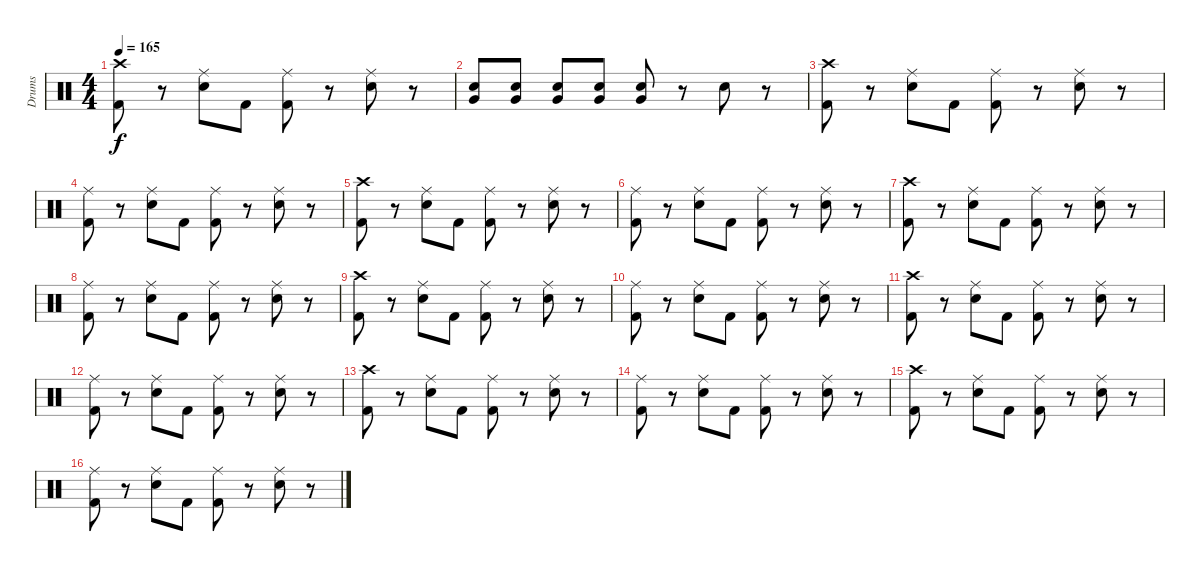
\track ("Drums" "Drums") {instrument percussion}
\staff {score}
\articulation defaults
\ts (4 4)
\tempo 165
\clef neutral
\ks c
("Crash high (hit)" "Kick (hit) 2").8{dy f} r.8 ("Ride (middle)" "Electric Snare (hit)").8 "Kick (hit) 2".8 ("Ride (middle)" "Kick (hit) 2").8 r.8 ("Ride (middle)" "Electric Snare (hit)").8 r.8 |
("Very Low Tom (hit)" "Electric Snare (hit)").8 ("Very Low Tom (hit)" "Electric Snare (hit)").8 ("Very Low Tom (hit)" "Electric Snare (hit)").8 ("Very Low Tom (hit)" "Electric Snare (hit)").8 ("Very Low Tom (hit)" "Electric Snare (hit)").8 r.8 "Electric Snare (hit)".8 r.8 |
("Crash high (hit)" "Kick (hit) 2").8 r.8 ("Ride (middle)" "Electric Snare (hit)").8 "Kick (hit) 2".8 ("Ride (middle)" "Kick (hit) 2").8 r.8 ("Ride (middle)" "Electric Snare (hit)").8 r.8 |
("Ride (middle)" "Kick (hit) 2").8 r.8 ("Ride (middle)" "Electric Snare (hit)").8 "Kick (hit) 2".8 ("Ride (middle)" "Kick (hit) 2").8 r.8 ("Ride (middle)" "Electric Snare (hit)").8 r.8 |
("Crash high (hit)" "Kick (hit) 2").8 r.8 ("Ride (middle)" "Electric Snare (hit)").8 "Kick (hit) 2".8 ("Ride (middle)" "Kick (hit) 2").8 r.8 ("Ride (middle)" "Electric Snare (hit)").8 r.8 |
("Ride (middle)" "Kick (hit) 2").8 r.8 ("Ride (middle)" "Electric Snare (hit)").8 "Kick (hit) 2".8 ("Ride (middle)" "Kick (hit) 2").8 r.8 ("Ride (middle)" "Electric Snare (hit)").8 r.8 |
("Crash high (hit)" "Kick (hit) 2").8 r.8 ("Ride (middle)" "Electric Snare (hit)").8 "Kick (hit) 2".8 ("Ride (middle)" "Kick (hit) 2").8 r.8 ("Ride (middle)" "Electric Snare (hit)").8 r.8 |
("Ride (middle)" "Kick (hit) 2").8 r.8 ("Ride (middle)" "Electric Snare (hit)").8 "Kick (hit) 2".8 ("Ride (middle)" "Kick (hit) 2").8 r.8 ("Ride (middle)" "Electric Snare (hit)").8 r.8 |
("Crash high (hit)" "Kick (hit) 2").8 r.8 ("Ride (middle)" "Electric Snare (hit)").8 "Kick (hit) 2".8 ("Ride (middle)" "Kick (hit) 2").8 r.8 ("Ride (middle)" "Electric Snare (hit)").8 r.8 |
("Ride (middle)" "Kick (hit) 2").8 r.8 ("Ride (middle)" "Electric Snare (hit)").8 "Kick (hit) 2".8 ("Ride (middle)" "Kick (hit) 2").8 r.8 ("Ride (middle)" "Electric Snare (hit)").8 r.8 |
("Crash high (hit)" "Kick (hit) 2").8 r.8 ("Ride (middle)" "Electric Snare (hit)").8 "Kick (hit) 2".8 ("Ride (middle)" "Kick (hit) 2").8 r.8 ("Ride (middle)" "Electric Snare (hit)").8 r.8 |
("Ride (middle)" "Kick (hit) 2").8 r.8 ("Ride (middle)" "Electric Snare (hit)").8 "Kick (hit) 2".8 ("Ride (middle)" "Kick (hit) 2").8 r.8 ("Ride (middle)" "Electric Snare (hit)").8 r.8 |
("Crash high (hit)" "Kick (hit) 2").8 r.8 ("Ride (middle)" "Electric Snare (hit)").8 "Kick (hit) 2".8 ("Ride (middle)" "Kick (hit) 2").8 r.8 ("Ride (middle)" "Electric Snare (hit)").8 r.8 |
("Ride (middle)" "Kick (hit) 2").8 r.8 ("Ride (middle)" "Electric Snare (hit)").8 "Kick (hit) 2".8 ("Ride (middle)" "Kick (hit) 2").8 r.8 ("Ride (middle)" "Electric Snare (hit)").8 r.8 |
("Crash high (hit)" "Kick (hit) 2").8 r.8 ("Ride (middle)" "Electric Snare (hit)").8 "Kick (hit) 2".8 ("Ride (middle)" "Kick (hit) 2").8 r.8 ("Ride (middle)" "Electric Snare (hit)").8 r.8 |
("Ride (middle)" "Kick (hit) 2").8 r.8 ("Ride (middle)" "Electric Snare (hit)").8 "Kick (hit) 2".8 ("Ride (middle)" "Kick (hit) 2").8 r.8 ("Ride (middle)" "Electric Snare (hit)").8 r.8
